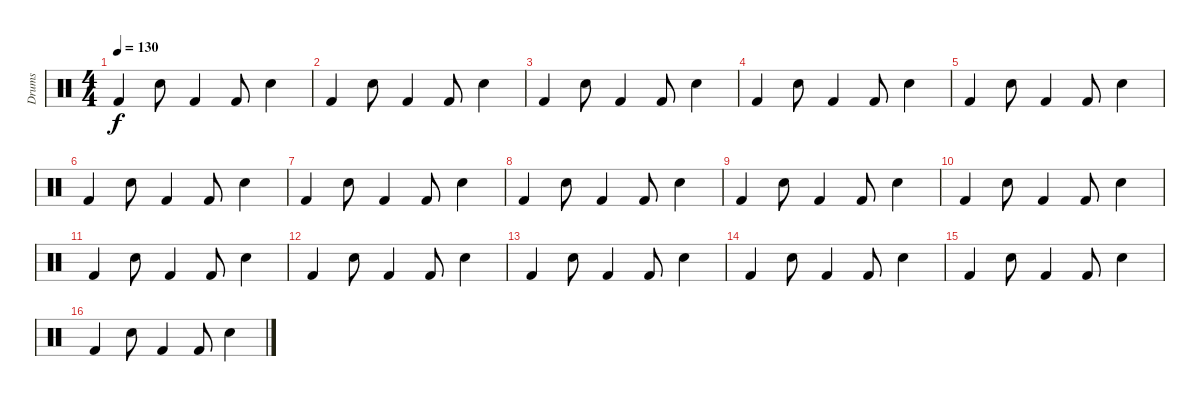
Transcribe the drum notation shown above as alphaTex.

\track ("Drums" "Drums") {instrument percussion}
\staff {score}
\articulation defaults
\ts (4 4)
\tempo 130
\clef neutral
\ks c "Kick (hit) 2".4{dy f} "Electric Snare (hit)".8 "Kick (hit) 2".4 "Kick (hit) 2".8 "Snare (hit) 2".4
|
"Kick (hit) 2".4 "Electric Snare (hit)".8 "Kick (hit) 2".4 "Kick (hit) 2".8 "Snare (hit) 2".4 |
"Kick (hit) 2".4 "Electric Snare (hit)".8 "Kick (hit) 2".4 "Kick (hit) 2".8 "Snare (hit) 2".4 |
"Kick (hit) 2".4 "Electric Snare (hit)".8 "Kick (hit) 2".4 "Kick (hit) 2".8 "Snare (hit) 2".4 |
"Kick (hit) 2".4 "Electric Snare (hit)".8 "Kick (hit) 2".4 "Kick (hit) 2".8 "Snare (hit) 2".4 |
"Kick (hit) 2".4 "Electric Snare (hit)".8 "Kick (hit) 2".4 "Kick (hit) 2".8 "Snare (hit) 2".4 |
"Kick (hit) 2".4 "Electric Snare (hit)".8 "Kick (hit) 2".4 "Kick (hit) 2".8 "Snare (hit) 2".4 |
"Kick (hit) 2".4 "Electric Snare (hit)".8 "Kick (hit) 2".4 "Kick (hit) 2".8 "Snare (hit) 2".4 |
"Kick (hit) 2".4 "Electric Snare (hit)".8 "Kick (hit) 2".4 "Kick (hit) 2".8 "Snare (hit) 2".4 |
"Kick (hit) 2".4 "Electric Snare (hit)".8 "Kick (hit) 2".4 "Kick (hit) 2".8 "Snare (hit) 2".4 |
"Kick (hit) 2".4 "Electric Snare (hit)".8 "Kick (hit) 2".4 "Kick (hit) 2".8 "Snare (hit) 2".4 |
"Kick (hit) 2".4 "Electric Snare (hit)".8 "Kick (hit) 2".4 "Kick (hit) 2".8 "Snare (hit) 2".4 |
"Kick (hit) 2".4 "Electric Snare (hit)".8 "Kick (hit) 2".4 "Kick (hit) 2".8 "Snare (hit) 2".4 |
"Kick (hit) 2".4 "Electric Snare (hit)".8 "Kick (hit) 2".4 "Kick (hit) 2".8 "Snare (hit) 2".4 |
"Kick (hit) 2".4 "Electric Snare (hit)".8 "Kick (hit) 2".4 "Kick (hit) 2".8 "Snare (hit) 2".4 |
"Kick (hit) 2".4 "Electric Snare (hit)".8 "Kick (hit) 2".4 "Kick (hit) 2".8 "Snare (hit) 2".4
